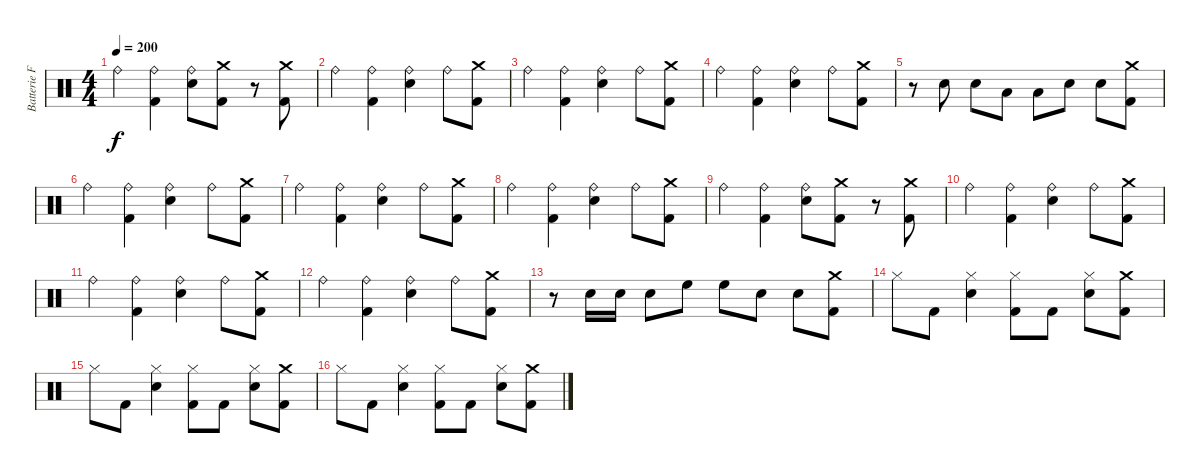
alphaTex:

\track ("Batterie Franck" "Batterie F") {instrument percussion}
\staff {score}
\articulation defaults
\ts (4 4)
\tempo 200
\clef neutral
\ks c "Ride (bell)".4{dy f}
("Ride (bell)" "Kick (hit) 2").4 ("Ride (bell)" "Snare (hit) 2").8 ("Crash medium (hit)" "Kick (hit) 2").8 r.8 ("Crash medium (hit)" "Kick (hit) 2").8 |
"Ride (bell)".4 ("Ride (bell)" "Kick (hit) 2").4 ("Ride (bell)" "Snare (hit) 2").4 "Ride (bell)".8 ("Crash medium (hit)" "Kick (hit) 2").8 |
"Ride (bell)".4 ("Ride (bell)" "Kick (hit) 2").4 ("Ride (bell)" "Snare (hit) 2").4 "Ride (bell)".8 ("Crash medium (hit)" "Kick (hit) 2").8 |
"Ride (bell)".4 ("Ride (bell)" "Kick (hit) 2").4 ("Ride (bell)" "Snare (hit) 2").4 "Ride (bell)".8 ("Crash medium (hit)" "Kick (hit) 2").8 |
r.8 "Snare (hit) 2".8 "Snare (hit) 2".8 "Low Floor Tom (hit)".8 "Low Floor Tom (hit)".8 "Snare (hit) 2".8 "Snare (hit) 2".8 ("Crash medium (hit)" "Kick (hit) 2").8 |
"Ride (bell)".4 ("Ride (bell)" "Kick (hit) 2").4 ("Ride (bell)" "Snare (hit) 2").4 "Ride (bell)".8 ("Crash medium (hit)" "Kick (hit) 2").8 |
"Ride (bell)".4 ("Ride (bell)" "Kick (hit) 2").4 ("Ride (bell)" "Snare (hit) 2").4 "Ride (bell)".8 ("Crash medium (hit)" "Kick (hit) 2").8 |
"Ride (bell)".4 ("Ride (bell)" "Kick (hit) 2").4 ("Ride (bell)" "Snare (hit) 2").4 "Ride (bell)".8 ("Crash medium (hit)" "Kick (hit) 2").8 |
"Ride (bell)".4 ("Ride (bell)" "Kick (hit) 2").4 ("Ride (bell)" "Snare (hit) 2").8 ("Crash medium (hit)" "Kick (hit) 2").8 r.8 ("Crash medium (hit)" "Kick (hit) 2").8 |
"Ride (bell)".4 ("Ride (bell)" "Kick (hit) 2").4 ("Ride (bell)" "Snare (hit) 2").4 "Ride (bell)".8 ("Crash medium (hit)" "Kick (hit) 2").8 |
"Ride (bell)".4 ("Ride (bell)" "Kick (hit) 2").4 ("Ride (bell)" "Snare (hit) 2").4 "Ride (bell)".8 ("Crash medium (hit)" "Kick (hit) 2").8 |
"Ride (bell)".4 ("Ride (bell)" "Kick (hit) 2").4 ("Ride (bell)" "Snare (hit) 2").4 "Ride (bell)".8 ("Crash medium (hit)" "Kick (hit) 2").8 |
r.8 "Snare (hit) 2".16 "Snare (hit) 2".16 "Snare (hit) 2".8 "High Floor Tom (hit)".8 "High Floor Tom (hit)".8 "Snare (hit) 2".8 "Snare (hit) 2".8 ("Crash medium (hit)" "Kick (hit) 2").8 |
"Hi-Hat (closed)".8 "Kick (hit) 2".8 ("Hi-Hat (closed)" "Snare (hit) 2").4 ("Hi-Hat (closed)" "Kick (hit) 2").8 "Kick (hit) 2".8 ("Hi-Hat (closed)" "Snare (hit) 2").8 ("Crash medium (hit)" "Kick (hit) 2").8 |
"Hi-Hat (closed)".8 "Kick (hit) 2".8 ("Hi-Hat (closed)" "Snare (hit) 2").4 ("Hi-Hat (closed)" "Kick (hit) 2").8 "Kick (hit) 2".8 ("Hi-Hat (closed)" "Snare (hit) 2").8 ("Crash medium (hit)" "Kick (hit) 2").8 |
"Hi-Hat (closed)".8 "Kick (hit) 2".8 ("Hi-Hat (closed)" "Snare (hit) 2").4 ("Hi-Hat (closed)" "Kick (hit) 2").8 "Kick (hit) 2".8 ("Hi-Hat (closed)" "Snare (hit) 2").8 ("Crash medium (hit)" "Kick (hit) 2").8
